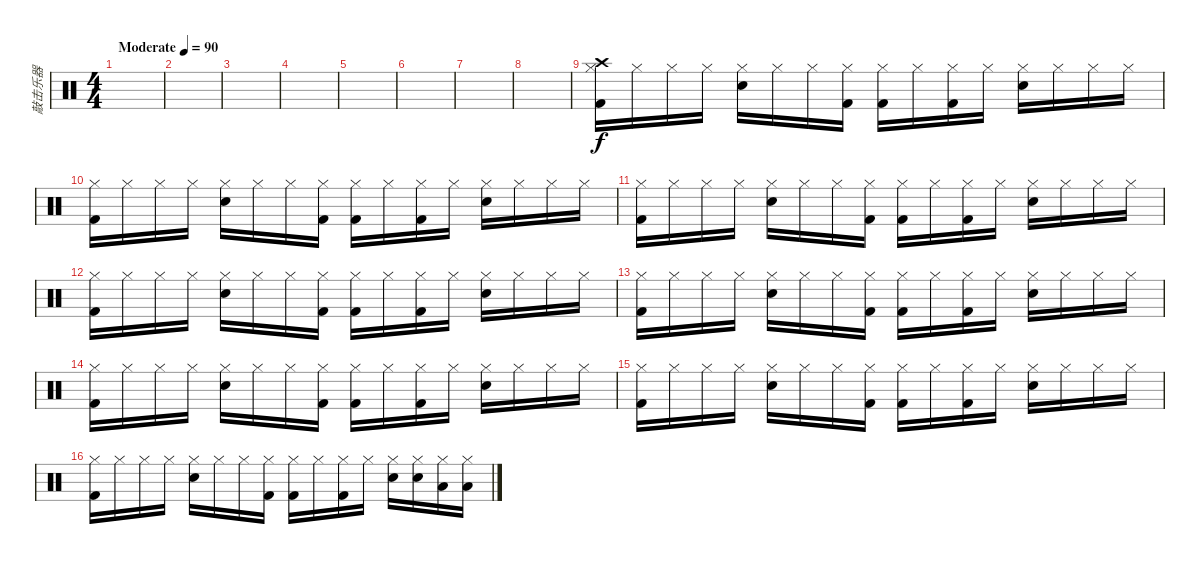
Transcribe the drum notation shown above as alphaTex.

\track ("敲击乐器" "敲击乐器") {instrument percussion}
\staff {score}
\articulation defaults
\ts (4 4)
\tempo (90 "Moderate")
\clef neutral
\ks c
|
|
|
|
|
|
|
|
("Hi-Hat (closed)" "Kick (hit) 2" "Crash high (hit)").16 "Hi-Hat (closed)".16 "Hi-Hat (closed)".16 "Hi-Hat (closed)".16 ("Hi-Hat (closed)" "Electric Snare (hit)").16 "Hi-Hat (closed)".16 "Hi-Hat (closed)".16 ("Hi-Hat (closed)" "Kick (hit) 2").16 ("Hi-Hat (closed)" "Kick (hit) 2").16 "Hi-Hat (closed)".16 ("Hi-Hat (closed)" "Kick (hit) 2").16 "Hi-Hat (closed)".16 ("Hi-Hat (closed)" "Electric Snare (hit)").16 "Hi-Hat (closed)".16 "Hi-Hat (closed)".16 "Hi-Hat (closed)".16 |
("Hi-Hat (closed)" "Kick (hit) 2").16 "Hi-Hat (closed)".16 "Hi-Hat (closed)".16 "Hi-Hat (closed)".16 ("Hi-Hat (closed)" "Electric Snare (hit)").16 "Hi-Hat (closed)".16 "Hi-Hat (closed)".16 ("Hi-Hat (closed)" "Kick (hit) 2").16 ("Hi-Hat (closed)" "Kick (hit) 2").16 "Hi-Hat (closed)".16 ("Hi-Hat (closed)" "Kick (hit) 2").16 "Hi-Hat (closed)".16 ("Hi-Hat (closed)" "Electric Snare (hit)").16 "Hi-Hat (closed)".16 "Hi-Hat (closed)".16 "Hi-Hat (closed)".16 |
("Hi-Hat (closed)" "Kick (hit) 2").16 "Hi-Hat (closed)".16 "Hi-Hat (closed)".16 "Hi-Hat (closed)".16 ("Hi-Hat (closed)" "Electric Snare (hit)").16 "Hi-Hat (closed)".16 "Hi-Hat (closed)".16 ("Hi-Hat (closed)" "Kick (hit) 2").16 ("Hi-Hat (closed)" "Kick (hit) 2").16 "Hi-Hat (closed)".16 ("Hi-Hat (closed)" "Kick (hit) 2").16 "Hi-Hat (closed)".16 ("Hi-Hat (closed)" "Electric Snare (hit)").16 "Hi-Hat (closed)".16 "Hi-Hat (closed)".16 "Hi-Hat (closed)".16 |
("Hi-Hat (closed)" "Kick (hit) 2").16 "Hi-Hat (closed)".16 "Hi-Hat (closed)".16 "Hi-Hat (closed)".16 ("Hi-Hat (closed)" "Electric Snare (hit)").16 "Hi-Hat (closed)".16 "Hi-Hat (closed)".16 ("Hi-Hat (closed)" "Kick (hit) 2").16 ("Hi-Hat (closed)" "Kick (hit) 2").16 "Hi-Hat (closed)".16 ("Hi-Hat (closed)" "Kick (hit) 2").16 "Hi-Hat (closed)".16 ("Hi-Hat (closed)" "Electric Snare (hit)").16 "Hi-Hat (closed)".16 "Hi-Hat (closed)".16 "Hi-Hat (closed)".16 |
("Hi-Hat (closed)" "Kick (hit) 2").16 "Hi-Hat (closed)".16 "Hi-Hat (closed)".16 "Hi-Hat (closed)".16 ("Hi-Hat (closed)" "Electric Snare (hit)").16 "Hi-Hat (closed)".16 "Hi-Hat (closed)".16 ("Hi-Hat (closed)" "Kick (hit) 2").16 ("Hi-Hat (closed)" "Kick (hit) 2").16 "Hi-Hat (closed)".16 ("Hi-Hat (closed)" "Kick (hit) 2").16 "Hi-Hat (closed)".16 ("Hi-Hat (closed)" "Electric Snare (hit)").16 "Hi-Hat (closed)".16 "Hi-Hat (closed)".16 "Hi-Hat (closed)".16 |
("Hi-Hat (closed)" "Kick (hit) 2").16 "Hi-Hat (closed)".16 "Hi-Hat (closed)".16 "Hi-Hat (closed)".16 ("Hi-Hat (closed)" "Electric Snare (hit)").16 "Hi-Hat (closed)".16 "Hi-Hat (closed)".16 ("Hi-Hat (closed)" "Kick (hit) 2").16 ("Hi-Hat (closed)" "Kick (hit) 2").16 "Hi-Hat (closed)".16 ("Hi-Hat (closed)" "Kick (hit) 2").16 "Hi-Hat (closed)".16 ("Hi-Hat (closed)" "Electric Snare (hit)").16 "Hi-Hat (closed)".16 "Hi-Hat (closed)".16 "Hi-Hat (closed)".16 |
("Hi-Hat (closed)" "Kick (hit) 2").16 "Hi-Hat (closed)".16 "Hi-Hat (closed)".16 "Hi-Hat (closed)".16 ("Hi-Hat (closed)" "Electric Snare (hit)").16 "Hi-Hat (closed)".16 "Hi-Hat (closed)".16 ("Hi-Hat (closed)" "Kick (hit) 2").16 ("Hi-Hat (closed)" "Kick (hit) 2").16 "Hi-Hat (closed)".16 ("Hi-Hat (closed)" "Kick (hit) 2").16 "Hi-Hat (closed)".16 ("Hi-Hat (closed)" "Electric Snare (hit)").16 "Hi-Hat (closed)".16 "Hi-Hat (closed)".16 "Hi-Hat (closed)".16 |
("Hi-Hat (closed)" "Kick (hit) 2").16 "Hi-Hat (closed)".16 "Hi-Hat (closed)".16 "Hi-Hat (closed)".16 ("Hi-Hat (closed)" "Electric Snare (hit)").16 "Hi-Hat (closed)".16 "Hi-Hat (closed)".16 ("Hi-Hat (closed)" "Kick (hit) 2").16 ("Hi-Hat (closed)" "Kick (hit) 2").16 "Hi-Hat (closed)".16 ("Hi-Hat (closed)" "Kick (hit) 2").16 "Hi-Hat (closed)".16 ("Hi-Hat (closed)" "Electric Snare (hit)").16 ("Hi-Hat (closed)" "Electric Snare (hit)").16 ("Hi-Hat (closed)" "Low Floor Tom (hit)").16 ("Hi-Hat (closed)" "Low Floor Tom (hit)").16
